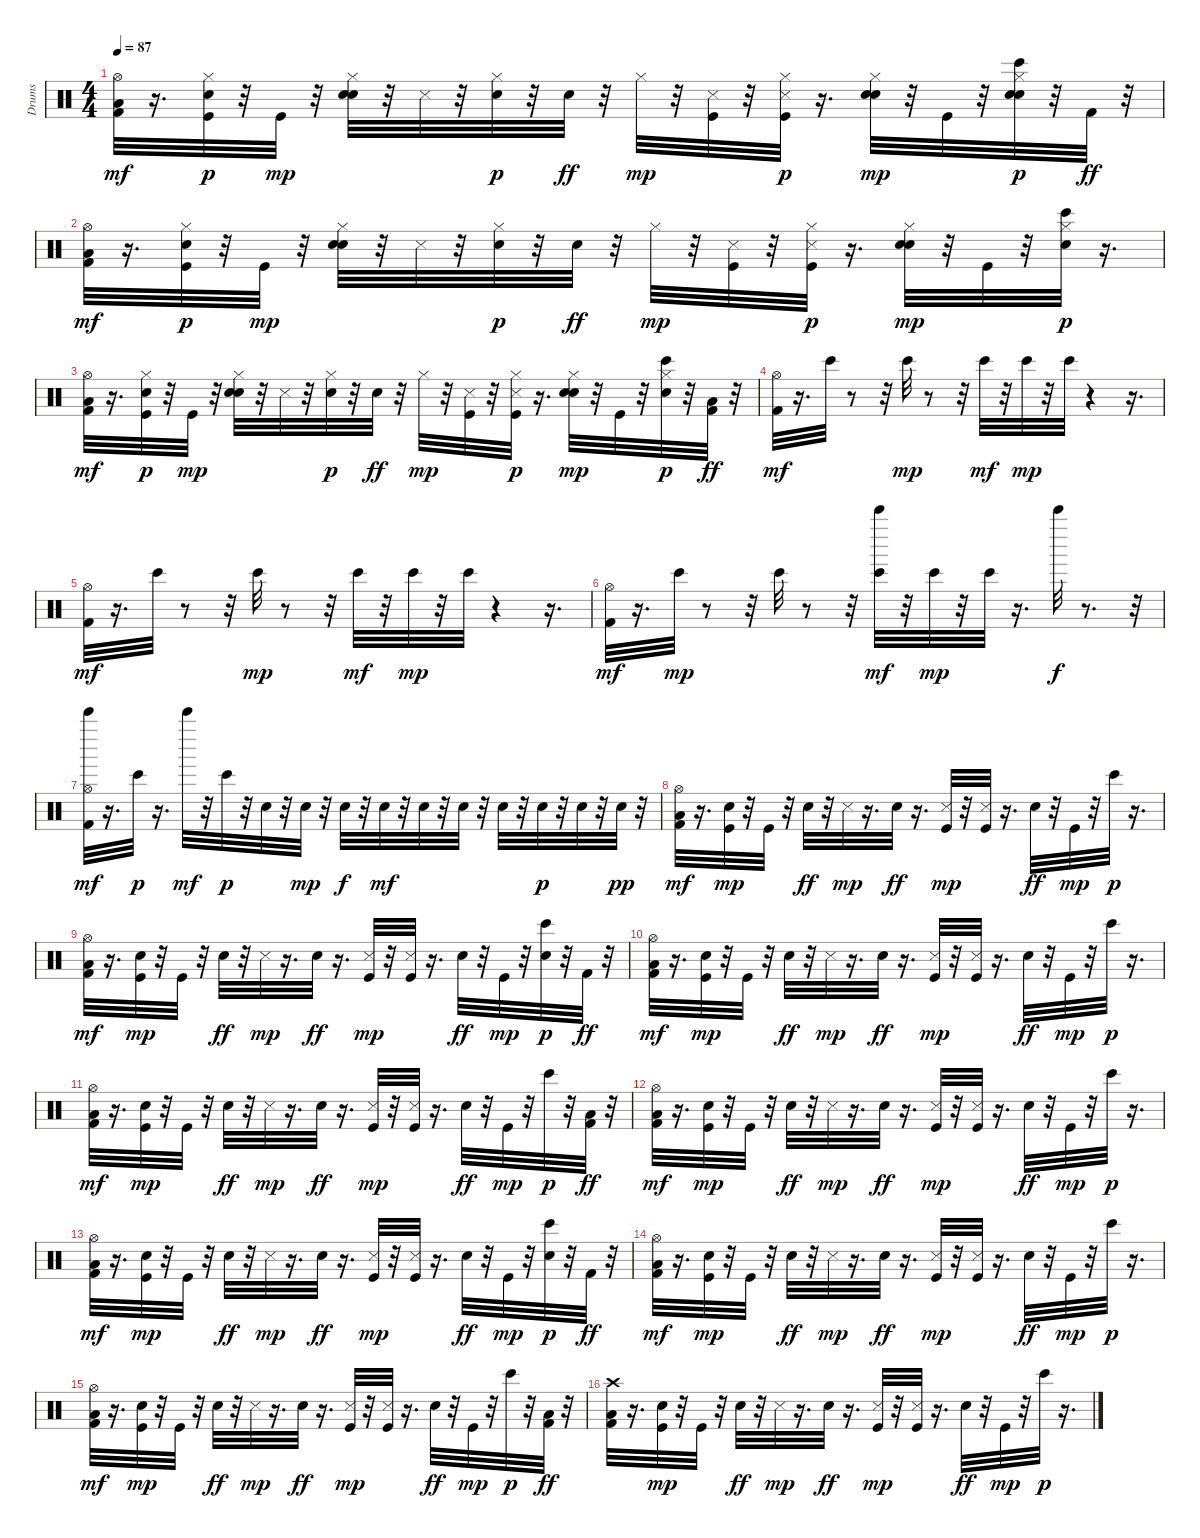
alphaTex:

\track ("Drums     " "Drums     ") {instrument percussion}
\staff {score}
\articulation defaults
\ts (4 4)
\tempo 87
\clef neutral
\ks c
("Kick (hit) 2" "Low Floor Tom (hit)" "Hi-Hat (open)").32{dy mf} r.16{d} ("Kick (hit)" "Snare (hit) 2" "Hi-Hat (closed)").32{dy p} r.32 "Kick (hit)".32{dy mp} r.32 ("Electric Snare (hit)" "Hand Clap (hit)" "Hi-Hat (closed)").32 r.32 "Snare (side stick) 3".32 r.32 ("Electric Snare (hit)" "Hi-Hat (closed)").32{dy p} r.32 "Hand Clap (hit)".32{dy ff} r.32 "Hi-Hat (closed)".32{dy mp} r.32 ("Kick (hit)" "Snare (side stick) 3").32 r.32 ("Kick (hit)" "Snare (side stick) 3" "Hi-Hat (closed)").32{dy p} r.16{d} ("Electric Snare (hit)" "Hand Clap (hit)" "Hi-Hat (closed)").32{dy mp} r.32 "Kick (hit)".32 r.32 ("Snare (hit) 2" "Electric Snare (hit)" "Hi-Hat (closed)" "Bongo High (hit)").32{dy p} r.32 "Kick (hit) 2".32{dy ff} r.32 |
("Kick (hit) 2" "Low Floor Tom (hit)" "Hi-Hat (open)").32{dy mf} r.16{d} ("Kick (hit)" "Snare (hit) 2" "Hi-Hat (closed)").32{dy p} r.32 "Kick (hit)".32{dy mp} r.32 ("Electric Snare (hit)" "Hand Clap (hit)" "Hi-Hat (closed)").32 r.32 "Snare (side stick) 3".32 r.32 ("Electric Snare (hit)" "Hi-Hat (closed)").32{dy p} r.32 "Hand Clap (hit)".32{dy ff} r.32 "Hi-Hat (closed)".32{dy mp} r.32 ("Kick (hit)" "Snare (side stick) 3").32 r.32 ("Kick (hit)" "Snare (side stick) 3" "Hi-Hat (closed)").32{dy p} r.16{d} ("Electric Snare (hit)" "Hand Clap (hit)" "Hi-Hat (closed)").32{dy mp} r.32 "Kick (hit)".32 r.32 ("Electric Snare (hit)" "Hi-Hat (closed)" "Bongo High (hit)").32{dy p} r.16{d} |
("Kick (hit) 2" "Low Floor Tom (hit)" "Hi-Hat (open)").32{dy mf} r.16{d} ("Kick (hit)" "Snare (hit) 2" "Hi-Hat (closed)").32{dy p} r.32 "Kick (hit)".32{dy mp} r.32 ("Electric Snare (hit)" "Hand Clap (hit)" "Hi-Hat (closed)").32 r.32 "Snare (side stick) 3".32 r.32 ("Electric Snare (hit)" "Hi-Hat (closed)").32{dy p} r.32 "Hand Clap (hit)".32{dy ff} r.32 "Hi-Hat (closed)".32{dy mp} r.32 ("Kick (hit)" "Snare (side stick) 3").32 r.32 ("Kick (hit)" "Snare (side stick) 3" "Hi-Hat (closed)").32{dy p} r.16{d} ("Electric Snare (hit)" "Hand Clap (hit)" "Hi-Hat (closed)").32{dy mp} r.32 "Kick (hit)".32 r.32 ("Electric Snare (hit)" "Hi-Hat (closed)" "Bongo High (hit)").32{dy p} r.32 ("Kick (hit) 2" "Low Floor Tom (hit)").32{dy ff} r.32 |
("Kick (hit) 2" "Hi-Hat (open)").32{dy mf} r.16{d} "Bongo High (hit)".32 r.8 r.32 "Bongo High (hit)".32{dy mp} r.8 r.32 "Bongo High (hit)".32{dy mf} r.32 "Bongo High (hit)".32{dy mp} r.32 "Bongo High (hit)".32 r.4 r.16{d} |
("Kick (hit) 2" "Hi-Hat (open)").32{dy mf} r.16{d} "Bongo High (hit)".32 r.8 r.32 "Bongo High (hit)".32{dy mp} r.8 r.32 "Bongo High (hit)".32{dy mf} r.32 "Bongo High (hit)".32{dy mp} r.32 "Bongo High (hit)".32 r.4 r.16{d} |
("Kick (hit) 2" "Hi-Hat (open)").32{dy mf} r.16{d} "Bongo High (hit)".32{dy mp} r.8 r.32 "Bongo High (hit)".32 r.8 r.32 ("Bell Tree (hit)" "Bongo High (hit)").32{dy mf} r.32 "Bongo High (hit)".32{dy mp} r.32 "Bongo High (hit)".32 r.16{d} "Bell Tree (hit)".32{dy f} r.8{d} r.32 |
("Kick (hit) 2" "Hi-Hat (open)" "Bell Tree (hit)").32{dy mf} r.16{d} "Bongo High (hit)".32{dy p} r.16{d} "Bell Tree (hit)".32{dy mf} r.32 "Bongo High (hit)".32{dy p} r.32 "Electric Snare (hit)".32 r.32 "Electric Snare (hit)".32{dy mp} r.32 "Electric Snare (hit)".32{dy f} r.32 "Electric Snare (hit)".32{dy mf} r.32 "Electric Snare (hit)".32 r.32 "Electric Snare (hit)".32 r.32 "Electric Snare (hit)".32 r.32 "Electric Snare (hit)".32{dy p} r.32 "Electric Snare (hit)".32 r.32 "Electric Snare (hit)".32{dy pp} r.32 |
("Kick (hit) 2" "Low Floor Tom (hit)" "Hi-Hat (open)").32{dy mf} r.16{d} ("Kick (hit)" "Snare (hit) 2").32{dy mp} r.32 "Kick (hit)".32 r.32 "Hand Clap (hit)".32{dy ff} r.32 "Snare (side stick) 3".32{dy mp} r.16{d} "Hand Clap (hit)".32{dy ff} r.16{d} ("Kick (hit)" "Snare (side stick) 3").32{dy mp} r.32 ("Kick (hit)" "Snare (side stick) 3").32 r.16{d} "Hand Clap (hit)".32{dy ff} r.32 "Kick (hit)".32{dy mp} r.32 "Bongo High (hit)".32{dy p} r.16{d} |
("Kick (hit) 2" "Low Floor Tom (hit)" "Hi-Hat (open)").32{dy mf} r.16{d} ("Kick (hit)" "Snare (hit) 2").32{dy mp} r.32 "Kick (hit)".32 r.32 "Hand Clap (hit)".32{dy ff} r.32 "Snare (side stick) 3".32{dy mp} r.16{d} "Hand Clap (hit)".32{dy ff} r.16{d} ("Kick (hit)" "Snare (side stick) 3").32{dy mp} r.32 ("Kick (hit)" "Snare (side stick) 3").32 r.16{d} "Hand Clap (hit)".32{dy ff} r.32 "Kick (hit)".32{dy mp} r.32 ("Snare (hit) 2" "Bongo High (hit)").32{dy p} r.32 "Kick (hit) 2".32{dy ff} r.32 |
("Kick (hit) 2" "Low Floor Tom (hit)" "Hi-Hat (open)").32{dy mf} r.16{d} ("Kick (hit)" "Snare (hit) 2").32{dy mp} r.32 "Kick (hit)".32 r.32 "Hand Clap (hit)".32{dy ff} r.32 "Snare (side stick) 3".32{dy mp} r.16{d} "Hand Clap (hit)".32{dy ff} r.16{d} ("Kick (hit)" "Snare (side stick) 3").32{dy mp} r.32 ("Kick (hit)" "Snare (side stick) 3").32 r.16{d} "Hand Clap (hit)".32{dy ff} r.32 "Kick (hit)".32{dy mp} r.32 "Bongo High (hit)".32{dy p} r.16{d} |
("Kick (hit) 2" "Low Floor Tom (hit)" "Hi-Hat (open)").32{dy mf} r.16{d} ("Kick (hit)" "Snare (hit) 2").32{dy mp} r.32 "Kick (hit)".32 r.32 "Hand Clap (hit)".32{dy ff} r.32 "Snare (side stick) 3".32{dy mp} r.16{d} "Hand Clap (hit)".32{dy ff} r.16{d} ("Kick (hit)" "Snare (side stick) 3").32{dy mp} r.32 ("Kick (hit)" "Snare (side stick) 3").32 r.16{d} "Hand Clap (hit)".32{dy ff} r.32 "Kick (hit)".32{dy mp} r.32 "Bongo High (hit)".32{dy p} r.32 ("Kick (hit) 2" "Low Floor Tom (hit)").32{dy ff} r.32 |
("Kick (hit) 2" "Low Floor Tom (hit)" "Hi-Hat (open)").32{dy mf} r.16{d} ("Kick (hit)" "Snare (hit) 2").32{dy mp} r.32 "Kick (hit)".32 r.32 "Hand Clap (hit)".32{dy ff} r.32 "Snare (side stick) 3".32{dy mp} r.16{d} "Hand Clap (hit)".32{dy ff} r.16{d} ("Kick (hit)" "Snare (side stick) 3").32{dy mp} r.32 ("Kick (hit)" "Snare (side stick) 3").32 r.16{d} "Hand Clap (hit)".32{dy ff} r.32 "Kick (hit)".32{dy mp} r.32 "Bongo High (hit)".32{dy p} r.16{d} |
("Kick (hit) 2" "Low Floor Tom (hit)" "Hi-Hat (open)").32{dy mf} r.16{d} ("Kick (hit)" "Snare (hit) 2").32{dy mp} r.32 "Kick (hit)".32 r.32 "Hand Clap (hit)".32{dy ff} r.32 "Snare (side stick) 3".32{dy mp} r.16{d} "Hand Clap (hit)".32{dy ff} r.16{d} ("Kick (hit)" "Snare (side stick) 3").32{dy mp} r.32 ("Kick (hit)" "Snare (side stick) 3").32 r.16{d} "Hand Clap (hit)".32{dy ff} r.32 "Kick (hit)".32{dy mp} r.32 ("Snare (hit) 2" "Bongo High (hit)").32{dy p} r.32 "Kick (hit) 2".32{dy ff} r.32 |
("Kick (hit) 2" "Low Floor Tom (hit)" "Hi-Hat (open)").32{dy mf} r.16{d} ("Kick (hit)" "Snare (hit) 2").32{dy mp} r.32 "Kick (hit)".32 r.32 "Hand Clap (hit)".32{dy ff} r.32 "Snare (side stick) 3".32{dy mp} r.16{d} "Hand Clap (hit)".32{dy ff} r.16{d} ("Kick (hit)" "Snare (side stick) 3").32{dy mp} r.32 ("Kick (hit)" "Snare (side stick) 3").32 r.16{d} "Hand Clap (hit)".32{dy ff} r.32 "Kick (hit)".32{dy mp} r.32 "Bongo High (hit)".32{dy p} r.16{d} |
("Kick (hit) 2" "Low Floor Tom (hit)" "Hi-Hat (open)").32{dy mf} r.16{d} ("Kick (hit)" "Snare (hit) 2").32{dy mp} r.32 "Kick (hit)".32 r.32 "Hand Clap (hit)".32{dy ff} r.32 "Snare (side stick) 3".32{dy mp} r.16{d} "Hand Clap (hit)".32{dy ff} r.16{d} ("Kick (hit)" "Snare (side stick) 3").32{dy mp} r.32 ("Kick (hit)" "Snare (side stick) 3").32 r.16{d} "Hand Clap (hit)".32{dy ff} r.32 "Kick (hit)".32{dy mp} r.32 "Bongo High (hit)".32{dy p} r.32 ("Kick (hit) 2" "Low Floor Tom (hit)").32{dy ff} r.32 |
("Kick (hit) 2" "Low Floor Tom (hit)" "Crash high (hit)").32 r.16{d} ("Kick (hit)" "Snare (hit) 2").32{dy mp} r.32 "Kick (hit)".32 r.32 "Hand Clap (hit)".32{dy ff} r.32 "Snare (side stick) 3".32{dy mp} r.16{d} "Hand Clap (hit)".32{dy ff} r.16{d} ("Kick (hit)" "Snare (side stick) 3").32{dy mp} r.32 ("Kick (hit)" "Snare (side stick) 3").32 r.16{d} "Hand Clap (hit)".32{dy ff} r.32 "Kick (hit)".32{dy mp} r.32 "Bongo High (hit)".32{dy p} r.16{d}
